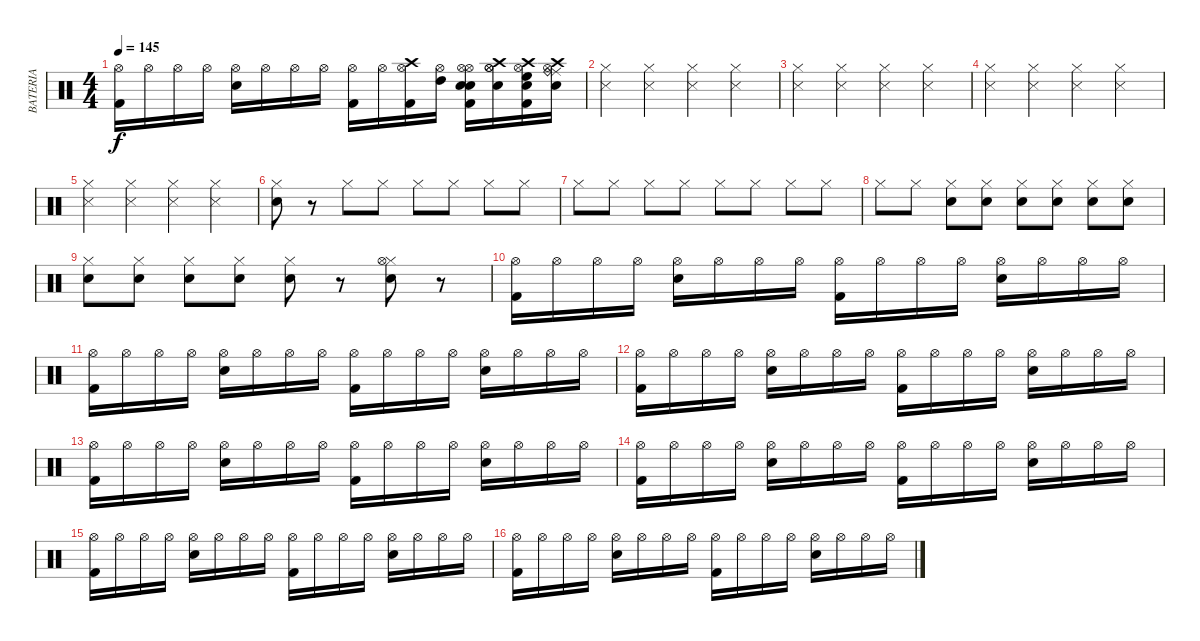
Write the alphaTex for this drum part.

\track ("BATERIA" "BATERIA") {instrument percussion}
\staff {score}
\articulation defaults
\ts (4 4)
\tempo 145
\clef neutral
\ks c
("Hi-Hat (open)" "Kick (hit) 2").16{dy f} "Hi-Hat (open)".16 "Hi-Hat (open)".16 "Hi-Hat (open)".16 ("Hi-Hat (open)" "Snare (hit) 2").16 "Hi-Hat (open)".16 "Hi-Hat (open)".16 "Hi-Hat (open)".16 ("Hi-Hat (open)" "Kick (hit) 2").16 "Hi-Hat (open)".16 ("Hi-Hat (open)" "Kick (hit) 2" "Crash high (hit)").16 ("Hi-Hat (open)" "High Tom (hit)").16 ("Hi-Hat (open)" "Kick (hit) 2" "Snare (hit) 2" "Hi-Hat (open)" "Snare (hit) 2").16 ("Hi-Hat (open)" "Crash high (hit)" "Hi-Hat (open)" "Snare (hit) 2").16 ("Hi-Hat (open)" "Kick (hit) 2" "Crash high (hit)" "High Floor Tom (hit)" "Snare (hit) 2").16 ("Hi-Hat (open)" "Crash high (hit)" "Ride (middle)" "Ride (bell)" "Snare (hit) 2").16 |
("Metronome (hit)" "Hi-Hat (closed)").4 ("Metronome (hit)" "Hi-Hat (closed)").4 ("Metronome (hit)" "Hi-Hat (closed)").4 ("Metronome (hit)" "Hi-Hat (closed)").4 |
("Metronome (hit)" "Hi-Hat (closed)").4 ("Metronome (hit)" "Hi-Hat (closed)").4 ("Metronome (hit)" "Hi-Hat (closed)").4 ("Metronome (hit)" "Hi-Hat (closed)").4 |
("Metronome (hit)" "Hi-Hat (closed)").4 ("Metronome (hit)" "Hi-Hat (closed)").4 ("Metronome (hit)" "Hi-Hat (closed)").4 ("Metronome (hit)" "Hi-Hat (closed)").4 |
("Metronome (hit)" "Hi-Hat (closed)").4 ("Metronome (hit)" "Hi-Hat (closed)").4 ("Metronome (hit)" "Hi-Hat (closed)").4 ("Metronome (hit)" "Hi-Hat (closed)").4 |
("Snare (hit) 2" "Hi-Hat (closed)").8 r.8 "Hi-Hat (closed)".8 "Hi-Hat (closed)".8 "Hi-Hat (closed)".8 "Hi-Hat (closed)".8 "Hi-Hat (closed)".8 "Hi-Hat (closed)".8 |
"Hi-Hat (closed)".8 "Hi-Hat (closed)".8 "Hi-Hat (closed)".8 "Hi-Hat (closed)".8 "Hi-Hat (closed)".8 "Hi-Hat (closed)".8 "Hi-Hat (closed)".8 "Hi-Hat (closed)".8 |
"Hi-Hat (closed)".8 "Hi-Hat (closed)".8 ("Hi-Hat (closed)" "Snare (hit) 2").8 ("Hi-Hat (closed)" "Snare (hit) 2").8 ("Hi-Hat (closed)" "Snare (hit) 2").8 ("Hi-Hat (closed)" "Snare (hit) 2").8 ("Hi-Hat (closed)" "Snare (hit) 2").8 ("Hi-Hat (closed)" "Snare (hit) 2").8 |
("Hi-Hat (closed)" "Snare (hit) 2").8 ("Hi-Hat (closed)" "Snare (hit) 2").8 ("Hi-Hat (closed)" "Snare (hit) 2").8 ("Hi-Hat (closed)" "Snare (hit) 2").8 ("Hi-Hat (closed)" "Snare (hit) 2").8 r.8 ("Hi-Hat (closed)" "Snare (hit) 2" "Hi-Hat (open)").8 r.8 |
("Hi-Hat (open)" "Kick (hit) 2").16 "Hi-Hat (open)".16 "Hi-Hat (open)".16 "Hi-Hat (open)".16 ("Hi-Hat (open)" "Snare (hit) 2").16 "Hi-Hat (open)".16 "Hi-Hat (open)".16 "Hi-Hat (open)".16 ("Hi-Hat (open)" "Kick (hit) 2").16 "Hi-Hat (open)".16 "Hi-Hat (open)".16 "Hi-Hat (open)".16 ("Hi-Hat (open)" "Snare (hit) 2").16 "Hi-Hat (open)".16 "Hi-Hat (open)".16 "Hi-Hat (open)".16 |
("Hi-Hat (open)" "Kick (hit) 2").16 "Hi-Hat (open)".16 "Hi-Hat (open)".16 "Hi-Hat (open)".16 ("Hi-Hat (open)" "Snare (hit) 2").16 "Hi-Hat (open)".16 "Hi-Hat (open)".16 "Hi-Hat (open)".16 ("Hi-Hat (open)" "Kick (hit) 2").16 "Hi-Hat (open)".16 "Hi-Hat (open)".16 "Hi-Hat (open)".16 ("Hi-Hat (open)" "Snare (hit) 2").16 "Hi-Hat (open)".16 "Hi-Hat (open)".16 "Hi-Hat (open)".16 |
("Hi-Hat (open)" "Kick (hit) 2").16 "Hi-Hat (open)".16 "Hi-Hat (open)".16 "Hi-Hat (open)".16 ("Hi-Hat (open)" "Snare (hit) 2").16 "Hi-Hat (open)".16 "Hi-Hat (open)".16 "Hi-Hat (open)".16 ("Hi-Hat (open)" "Kick (hit) 2").16 "Hi-Hat (open)".16 "Hi-Hat (open)".16 "Hi-Hat (open)".16 ("Hi-Hat (open)" "Snare (hit) 2").16 "Hi-Hat (open)".16 "Hi-Hat (open)".16 "Hi-Hat (open)".16 |
("Hi-Hat (open)" "Kick (hit) 2").16 "Hi-Hat (open)".16 "Hi-Hat (open)".16 "Hi-Hat (open)".16 ("Hi-Hat (open)" "Snare (hit) 2").16 "Hi-Hat (open)".16 "Hi-Hat (open)".16 "Hi-Hat (open)".16 ("Hi-Hat (open)" "Kick (hit) 2").16 "Hi-Hat (open)".16 "Hi-Hat (open)".16 "Hi-Hat (open)".16 ("Hi-Hat (open)" "Snare (hit) 2").16 "Hi-Hat (open)".16 "Hi-Hat (open)".16 "Hi-Hat (open)".16 |
("Hi-Hat (open)" "Kick (hit) 2").16 "Hi-Hat (open)".16 "Hi-Hat (open)".16 "Hi-Hat (open)".16 ("Hi-Hat (open)" "Snare (hit) 2").16 "Hi-Hat (open)".16 "Hi-Hat (open)".16 "Hi-Hat (open)".16 ("Hi-Hat (open)" "Kick (hit) 2").16 "Hi-Hat (open)".16 "Hi-Hat (open)".16 "Hi-Hat (open)".16 ("Hi-Hat (open)" "Snare (hit) 2").16 "Hi-Hat (open)".16 "Hi-Hat (open)".16 "Hi-Hat (open)".16 |
("Hi-Hat (open)" "Kick (hit) 2").16 "Hi-Hat (open)".16 "Hi-Hat (open)".16 "Hi-Hat (open)".16 ("Hi-Hat (open)" "Snare (hit) 2").16 "Hi-Hat (open)".16 "Hi-Hat (open)".16 "Hi-Hat (open)".16 ("Hi-Hat (open)" "Kick (hit) 2").16 "Hi-Hat (open)".16 "Hi-Hat (open)".16 "Hi-Hat (open)".16 ("Hi-Hat (open)" "Snare (hit) 2").16 "Hi-Hat (open)".16 "Hi-Hat (open)".16 "Hi-Hat (open)".16 |
("Hi-Hat (open)" "Kick (hit) 2").16 "Hi-Hat (open)".16 "Hi-Hat (open)".16 "Hi-Hat (open)".16 ("Hi-Hat (open)" "Snare (hit) 2").16 "Hi-Hat (open)".16 "Hi-Hat (open)".16 "Hi-Hat (open)".16 ("Hi-Hat (open)" "Kick (hit) 2").16 "Hi-Hat (open)".16 "Hi-Hat (open)".16 "Hi-Hat (open)".16 ("Hi-Hat (open)" "Snare (hit) 2").16 "Hi-Hat (open)".16 "Hi-Hat (open)".16 "Hi-Hat (open)".16
